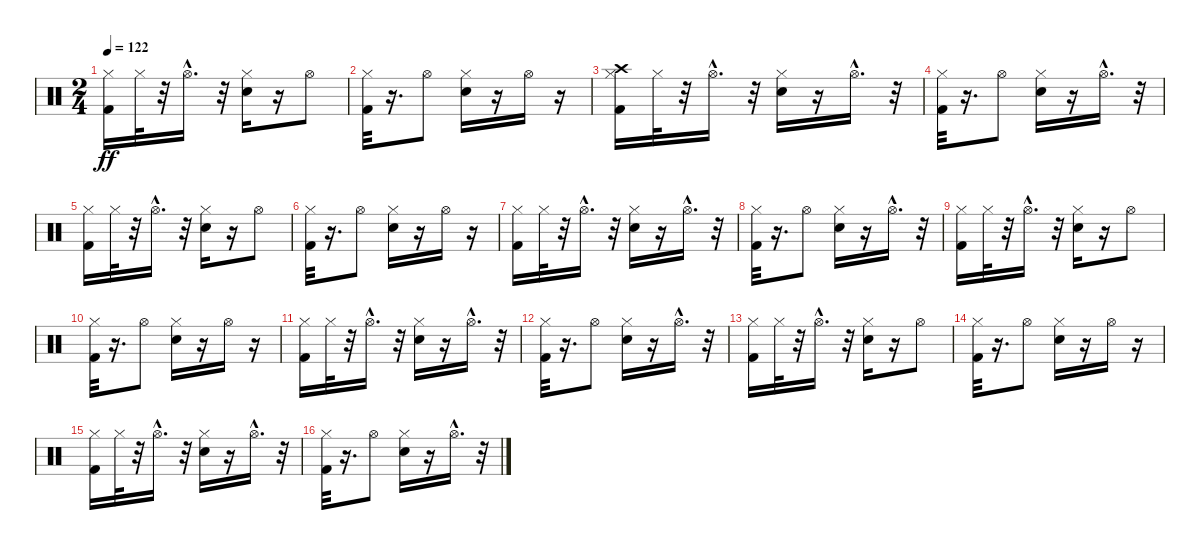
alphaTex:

\track "" {instrument percussion}
\staff {score}
\articulation defaults
\ts (2 4)
\tempo 122
\clef neutral
\ks c
("Kick (hit) 2" "Hi-Hat (closed)").16{dy ff} "Hi-Hat (closed)".32 r.32 "Hi-Hat (open)"{hac}.16{d} r.32 ("Snare (hit) 2" "Hi-Hat (closed)").16 r.16 "Hi-Hat (open)".8 |
("Kick (hit) 2" "Hi-Hat (closed)").32 r.16{d} "Hi-Hat (open)".8 ("Snare (hit) 2" "Hi-Hat (closed)").16 r.16 "Hi-Hat (open)".16 r.16 |
("Kick (hit) 2" "Crash high (hit)" "Hi-Hat (closed)").16 "Hi-Hat (closed)".32 r.32 "Hi-Hat (open)"{hac}.16{d} r.32 ("Snare (hit) 2" "Hi-Hat (closed)").16 r.16 "Hi-Hat (open)"{hac}.16{d} r.32 |
("Kick (hit) 2" "Hi-Hat (closed)").32 r.16{d} "Hi-Hat (open)".8 ("Snare (hit) 2" "Hi-Hat (closed)").16 r.16 "Hi-Hat (open)"{hac}.16{d} r.32 |
("Kick (hit) 2" "Hi-Hat (closed)").16 "Hi-Hat (closed)".32 r.32 "Hi-Hat (open)"{hac}.16{d} r.32 ("Snare (hit) 2" "Hi-Hat (closed)").16 r.16 "Hi-Hat (open)".8 |
("Kick (hit) 2" "Hi-Hat (closed)").32 r.16{d} "Hi-Hat (open)".8 ("Snare (hit) 2" "Hi-Hat (closed)").16 r.16 "Hi-Hat (open)".16 r.16 |
("Kick (hit) 2" "Hi-Hat (closed)").16 "Hi-Hat (closed)".32 r.32 "Hi-Hat (open)"{hac}.16{d} r.32 ("Snare (hit) 2" "Hi-Hat (closed)").16 r.16 "Hi-Hat (open)"{hac}.16{d} r.32 |
("Kick (hit) 2" "Hi-Hat (closed)").32 r.16{d} "Hi-Hat (open)".8 ("Snare (hit) 2" "Hi-Hat (closed)").16 r.16 "Hi-Hat (open)"{hac}.16{d} r.32 |
("Kick (hit) 2" "Hi-Hat (closed)").16 "Hi-Hat (closed)".32 r.32 "Hi-Hat (open)"{hac}.16{d} r.32 ("Snare (hit) 2" "Hi-Hat (closed)").16 r.16 "Hi-Hat (open)".8 |
("Kick (hit) 2" "Hi-Hat (closed)").32 r.16{d} "Hi-Hat (open)".8 ("Snare (hit) 2" "Hi-Hat (closed)").16 r.16 "Hi-Hat (open)".16 r.16 |
("Kick (hit) 2" "Hi-Hat (closed)").16 "Hi-Hat (closed)".32 r.32 "Hi-Hat (open)"{hac}.16{d} r.32 ("Snare (hit) 2" "Hi-Hat (closed)").16 r.16 "Hi-Hat (open)"{hac}.16{d} r.32 |
("Kick (hit) 2" "Hi-Hat (closed)").32 r.16{d} "Hi-Hat (open)".8 ("Snare (hit) 2" "Hi-Hat (closed)").16 r.16 "Hi-Hat (open)"{hac}.16{d} r.32 |
("Kick (hit) 2" "Hi-Hat (closed)").16 "Hi-Hat (closed)".32 r.32 "Hi-Hat (open)"{hac}.16{d} r.32 ("Snare (hit) 2" "Hi-Hat (closed)").16 r.16 "Hi-Hat (open)".8 |
("Kick (hit) 2" "Hi-Hat (closed)").32 r.16{d} "Hi-Hat (open)".8 ("Snare (hit) 2" "Hi-Hat (closed)").16 r.16 "Hi-Hat (open)".16 r.16 |
("Kick (hit) 2" "Hi-Hat (closed)").16 "Hi-Hat (closed)".32 r.32 "Hi-Hat (open)"{hac}.16{d} r.32 ("Snare (hit) 2" "Hi-Hat (closed)").16 r.16 "Hi-Hat (open)"{hac}.16{d} r.32 |
("Kick (hit) 2" "Hi-Hat (closed)").32 r.16{d} "Hi-Hat (open)".8 ("Snare (hit) 2" "Hi-Hat (closed)").16 r.16 "Hi-Hat (open)"{hac}.16{d} r.32
